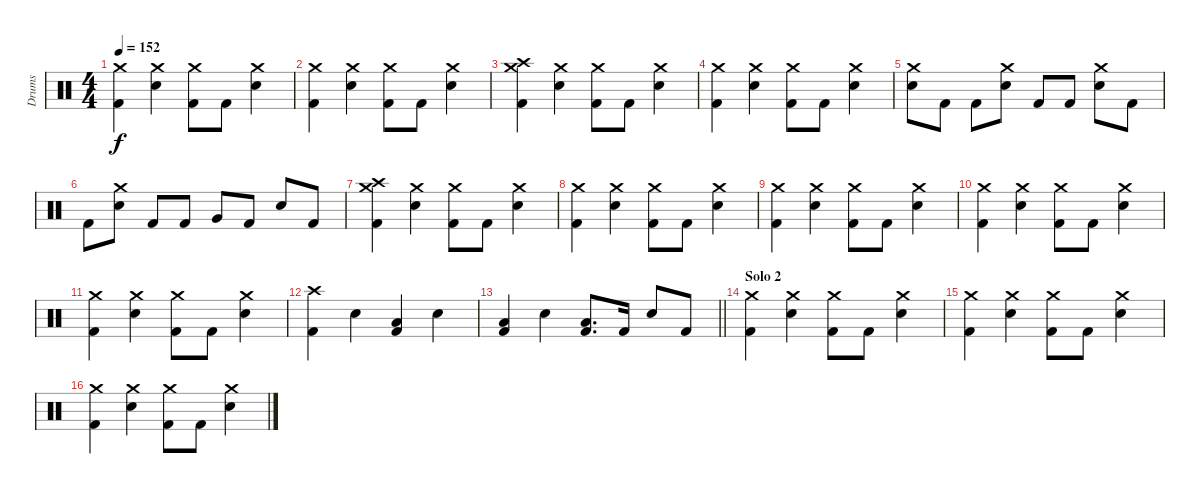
\track ("Drums" "Drums") {instrument percussion}
\staff {score}
\articulation defaults
\ts (4 4)
\tempo 152
\clef neutral
\ks c
("Crash medium (hit)" "Kick (hit) 2").4{dy f} ("Crash medium (hit)" "Snare (hit) 2").4 ("Crash medium (hit)" "Kick (hit) 2").8 "Kick (hit) 2".8 ("Crash medium (hit)" "Snare (hit) 2").4 |
("Crash medium (hit)" "Kick (hit) 2").4 ("Crash medium (hit)" "Snare (hit) 2").4 ("Crash medium (hit)" "Kick (hit) 2").8 "Kick (hit) 2".8 ("Crash medium (hit)" "Snare (hit) 2").4 |
("Crash high (hit)" "Crash medium (hit)" "Kick (hit) 2").4 ("Crash medium (hit)" "Snare (hit) 2").4 ("Crash medium (hit)" "Kick (hit) 2").8 "Kick (hit) 2".8 ("Crash medium (hit)" "Snare (hit) 2").4 |
("Crash medium (hit)" "Kick (hit) 2").4 ("Crash medium (hit)" "Snare (hit) 2").4 ("Crash medium (hit)" "Kick (hit) 2").8 "Kick (hit) 2".8 ("Crash medium (hit)" "Snare (hit) 2").4 |
("Crash medium (hit)" "Snare (hit) 2").8 "Kick (hit) 2".8 "Kick (hit) 2".8 ("Crash medium (hit)" "Snare (hit) 2").8 "Kick (hit) 2".8 "Kick (hit) 2".8 ("Crash medium (hit)" "Snare (hit) 2").8 "Kick (hit) 2".8 |
"Kick (hit) 2".8 ("Crash medium (hit)" "Snare (hit) 2").8 "Kick (hit) 2".8 "Kick (hit) 2".8 "Very Low Tom (hit)".8 "Kick (hit) 2".8 "Snare (hit) 2".8 "Kick (hit) 2".8 |
("Crash high (hit)" "Crash medium (hit)" "Kick (hit) 2").4 ("Crash medium (hit)" "Snare (hit) 2").4 ("Crash medium (hit)" "Kick (hit) 2").8 "Kick (hit) 2".8 ("Crash medium (hit)" "Snare (hit) 2").4 |
("Crash medium (hit)" "Kick (hit) 2").4 ("Crash medium (hit)" "Snare (hit) 2").4 ("Crash medium (hit)" "Kick (hit) 2").8 "Kick (hit) 2".8 ("Crash medium (hit)" "Snare (hit) 2").4 |
("Crash medium (hit)" "Kick (hit) 2").4 ("Crash medium (hit)" "Snare (hit) 2").4 ("Crash medium (hit)" "Kick (hit) 2").8 "Kick (hit) 2".8 ("Crash medium (hit)" "Snare (hit) 2").4 |
("Crash medium (hit)" "Kick (hit) 2").4 ("Crash medium (hit)" "Snare (hit) 2").4 ("Crash medium (hit)" "Kick (hit) 2").8 "Kick (hit) 2".8 ("Crash medium (hit)" "Snare (hit) 2").4 |
("Crash medium (hit)" "Kick (hit) 2").4 ("Crash medium (hit)" "Snare (hit) 2").4 ("Crash medium (hit)" "Kick (hit) 2").8 "Kick (hit) 2".8 ("Crash medium (hit)" "Snare (hit) 2").4 |
("Crash high (hit)" "Kick (hit) 2").4 "Snare (hit) 2".4 ("Low Floor Tom (hit)" "Kick (hit) 2").4 "Snare (hit) 2".4 |
\barLineRight lightlight
("Low Floor Tom (hit)" "Kick (hit) 2").4 "Snare (hit) 2".4 ("Low Floor Tom (hit)" "Kick (hit) 2").8{d} "Kick (hit) 2".16 "Snare (hit) 2".8 "Kick (hit) 2".8 |
\section ("" "Solo 2")
("Crash medium (hit)" "Kick (hit) 2").4 ("Crash medium (hit)" "Snare (hit) 2").4 ("Crash medium (hit)" "Kick (hit) 2").8 "Kick (hit) 2".8 ("Crash medium (hit)" "Snare (hit) 2").4 |
("Crash medium (hit)" "Kick (hit) 2").4 ("Crash medium (hit)" "Snare (hit) 2").4 ("Crash medium (hit)" "Kick (hit) 2").8 "Kick (hit) 2".8 ("Crash medium (hit)" "Snare (hit) 2").4 |
("Crash medium (hit)" "Kick (hit) 2").4 ("Crash medium (hit)" "Snare (hit) 2").4 ("Crash medium (hit)" "Kick (hit) 2").8 "Kick (hit) 2".8 ("Crash medium (hit)" "Snare (hit) 2").4
